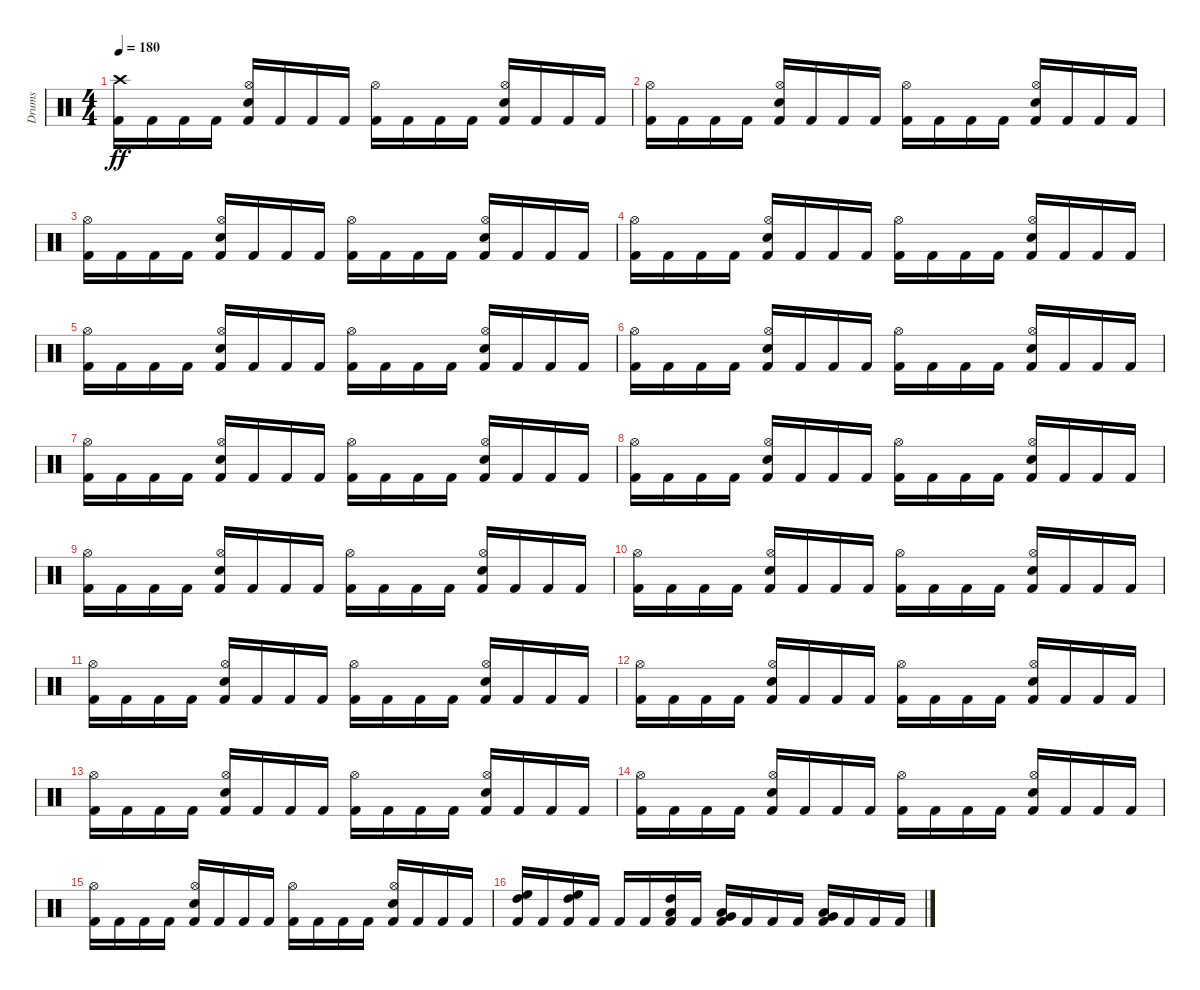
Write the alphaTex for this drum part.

\track ("Drums" "Drums") {instrument percussion}
\staff {score}
\articulation defaults
\ts (4 4)
\tempo 180
\clef neutral
\ks c
("Crash high (hit)" "Kick (hit) 2").16{dy ff} "Kick (hit) 2".16 "Kick (hit) 2".16 "Kick (hit) 2".16 ("Hi-Hat (open)" "Snare (hit) 2" "Kick (hit) 2").16 "Kick (hit) 2".16 "Kick (hit) 2".16 "Kick (hit) 2".16 ("Hi-Hat (open)" "Kick (hit) 2").16 "Kick (hit) 2".16 "Kick (hit) 2".16 "Kick (hit) 2".16 ("Hi-Hat (open)" "Snare (hit) 2" "Kick (hit) 2").16 "Kick (hit) 2".16 "Kick (hit) 2".16 "Kick (hit) 2".16 |
("Hi-Hat (open)" "Kick (hit) 2").16 "Kick (hit) 2".16 "Kick (hit) 2".16 "Kick (hit) 2".16 ("Hi-Hat (open)" "Snare (hit) 2" "Kick (hit) 2").16 "Kick (hit) 2".16 "Kick (hit) 2".16 "Kick (hit) 2".16 ("Hi-Hat (open)" "Kick (hit) 2").16 "Kick (hit) 2".16 "Kick (hit) 2".16 "Kick (hit) 2".16 ("Hi-Hat (open)" "Snare (hit) 2" "Kick (hit) 2").16 "Kick (hit) 2".16 "Kick (hit) 2".16 "Kick (hit) 2".16 |
("Hi-Hat (open)" "Kick (hit) 2").16 "Kick (hit) 2".16 "Kick (hit) 2".16 "Kick (hit) 2".16 ("Hi-Hat (open)" "Snare (hit) 2" "Kick (hit) 2").16 "Kick (hit) 2".16 "Kick (hit) 2".16 "Kick (hit) 2".16 ("Hi-Hat (open)" "Kick (hit) 2").16 "Kick (hit) 2".16 "Kick (hit) 2".16 "Kick (hit) 2".16 ("Hi-Hat (open)" "Snare (hit) 2" "Kick (hit) 2").16 "Kick (hit) 2".16 "Kick (hit) 2".16 "Kick (hit) 2".16 |
("Hi-Hat (open)" "Kick (hit) 2").16 "Kick (hit) 2".16 "Kick (hit) 2".16 "Kick (hit) 2".16 ("Hi-Hat (open)" "Snare (hit) 2" "Kick (hit) 2").16 "Kick (hit) 2".16 "Kick (hit) 2".16 "Kick (hit) 2".16 ("Hi-Hat (open)" "Kick (hit) 2").16 "Kick (hit) 2".16 "Kick (hit) 2".16 "Kick (hit) 2".16 ("Hi-Hat (open)" "Snare (hit) 2" "Kick (hit) 2").16 "Kick (hit) 2".16 "Kick (hit) 2".16 "Kick (hit) 2".16 |
("Hi-Hat (open)" "Kick (hit) 2").16 "Kick (hit) 2".16 "Kick (hit) 2".16 "Kick (hit) 2".16 ("Hi-Hat (open)" "Snare (hit) 2" "Kick (hit) 2").16 "Kick (hit) 2".16 "Kick (hit) 2".16 "Kick (hit) 2".16 ("Hi-Hat (open)" "Kick (hit) 2").16 "Kick (hit) 2".16 "Kick (hit) 2".16 "Kick (hit) 2".16 ("Hi-Hat (open)" "Snare (hit) 2" "Kick (hit) 2").16 "Kick (hit) 2".16 "Kick (hit) 2".16 "Kick (hit) 2".16 |
("Hi-Hat (open)" "Kick (hit) 2").16 "Kick (hit) 2".16 "Kick (hit) 2".16 "Kick (hit) 2".16 ("Hi-Hat (open)" "Snare (hit) 2" "Kick (hit) 2").16 "Kick (hit) 2".16 "Kick (hit) 2".16 "Kick (hit) 2".16 ("Hi-Hat (open)" "Kick (hit) 2").16 "Kick (hit) 2".16 "Kick (hit) 2".16 "Kick (hit) 2".16 ("Hi-Hat (open)" "Snare (hit) 2" "Kick (hit) 2").16 "Kick (hit) 2".16 "Kick (hit) 2".16 "Kick (hit) 2".16 |
("Hi-Hat (open)" "Kick (hit) 2").16 "Kick (hit) 2".16 "Kick (hit) 2".16 "Kick (hit) 2".16 ("Hi-Hat (open)" "Snare (hit) 2" "Kick (hit) 2").16 "Kick (hit) 2".16 "Kick (hit) 2".16 "Kick (hit) 2".16 ("Hi-Hat (open)" "Kick (hit) 2").16 "Kick (hit) 2".16 "Kick (hit) 2".16 "Kick (hit) 2".16 ("Hi-Hat (open)" "Snare (hit) 2" "Kick (hit) 2").16 "Kick (hit) 2".16 "Kick (hit) 2".16 "Kick (hit) 2".16 |
("Hi-Hat (open)" "Kick (hit) 2").16 "Kick (hit) 2".16 "Kick (hit) 2".16 "Kick (hit) 2".16 ("Hi-Hat (open)" "Snare (hit) 2" "Kick (hit) 2").16 "Kick (hit) 2".16 "Kick (hit) 2".16 "Kick (hit) 2".16 ("Hi-Hat (open)" "Kick (hit) 2").16 "Kick (hit) 2".16 "Kick (hit) 2".16 "Kick (hit) 2".16 ("Hi-Hat (open)" "Snare (hit) 2" "Kick (hit) 2").16 "Kick (hit) 2".16 "Kick (hit) 2".16 "Kick (hit) 2".16 |
("Hi-Hat (open)" "Kick (hit) 2").16 "Kick (hit) 2".16 "Kick (hit) 2".16 "Kick (hit) 2".16 ("Hi-Hat (open)" "Snare (hit) 2" "Kick (hit) 2").16 "Kick (hit) 2".16 "Kick (hit) 2".16 "Kick (hit) 2".16 ("Hi-Hat (open)" "Kick (hit) 2").16 "Kick (hit) 2".16 "Kick (hit) 2".16 "Kick (hit) 2".16 ("Hi-Hat (open)" "Snare (hit) 2" "Kick (hit) 2").16 "Kick (hit) 2".16 "Kick (hit) 2".16 "Kick (hit) 2".16 |
("Hi-Hat (open)" "Kick (hit) 2").16 "Kick (hit) 2".16 "Kick (hit) 2".16 "Kick (hit) 2".16 ("Hi-Hat (open)" "Snare (hit) 2" "Kick (hit) 2").16 "Kick (hit) 2".16 "Kick (hit) 2".16 "Kick (hit) 2".16 ("Hi-Hat (open)" "Kick (hit) 2").16 "Kick (hit) 2".16 "Kick (hit) 2".16 "Kick (hit) 2".16 ("Hi-Hat (open)" "Snare (hit) 2" "Kick (hit) 2").16 "Kick (hit) 2".16 "Kick (hit) 2".16 "Kick (hit) 2".16 |
("Hi-Hat (open)" "Kick (hit) 2").16 "Kick (hit) 2".16 "Kick (hit) 2".16 "Kick (hit) 2".16 ("Hi-Hat (open)" "Snare (hit) 2" "Kick (hit) 2").16 "Kick (hit) 2".16 "Kick (hit) 2".16 "Kick (hit) 2".16 ("Hi-Hat (open)" "Kick (hit) 2").16 "Kick (hit) 2".16 "Kick (hit) 2".16 "Kick (hit) 2".16 ("Hi-Hat (open)" "Snare (hit) 2" "Kick (hit) 2").16 "Kick (hit) 2".16 "Kick (hit) 2".16 "Kick (hit) 2".16 |
("Hi-Hat (open)" "Kick (hit) 2").16 "Kick (hit) 2".16 "Kick (hit) 2".16 "Kick (hit) 2".16 ("Hi-Hat (open)" "Snare (hit) 2" "Kick (hit) 2").16 "Kick (hit) 2".16 "Kick (hit) 2".16 "Kick (hit) 2".16 ("Hi-Hat (open)" "Kick (hit) 2").16 "Kick (hit) 2".16 "Kick (hit) 2".16 "Kick (hit) 2".16 ("Hi-Hat (open)" "Snare (hit) 2" "Kick (hit) 2").16 "Kick (hit) 2".16 "Kick (hit) 2".16 "Kick (hit) 2".16 |
("Hi-Hat (open)" "Kick (hit) 2").16 "Kick (hit) 2".16 "Kick (hit) 2".16 "Kick (hit) 2".16 ("Hi-Hat (open)" "Snare (hit) 2" "Kick (hit) 2").16 "Kick (hit) 2".16 "Kick (hit) 2".16 "Kick (hit) 2".16 ("Hi-Hat (open)" "Kick (hit) 2").16 "Kick (hit) 2".16 "Kick (hit) 2".16 "Kick (hit) 2".16 ("Hi-Hat (open)" "Snare (hit) 2" "Kick (hit) 2").16 "Kick (hit) 2".16 "Kick (hit) 2".16 "Kick (hit) 2".16 |
("Hi-Hat (open)" "Kick (hit) 2").16 "Kick (hit) 2".16 "Kick (hit) 2".16 "Kick (hit) 2".16 ("Hi-Hat (open)" "Snare (hit) 2" "Kick (hit) 2").16 "Kick (hit) 2".16 "Kick (hit) 2".16 "Kick (hit) 2".16 ("Hi-Hat (open)" "Kick (hit) 2").16 "Kick (hit) 2".16 "Kick (hit) 2".16 "Kick (hit) 2".16 ("Hi-Hat (open)" "Snare (hit) 2" "Kick (hit) 2").16 "Kick (hit) 2".16 "Kick (hit) 2".16 "Kick (hit) 2".16 |
("Hi-Hat (open)" "Kick (hit) 2").16 "Kick (hit) 2".16 "Kick (hit) 2".16 "Kick (hit) 2".16 ("Hi-Hat (open)" "Snare (hit) 2" "Kick (hit) 2").16 "Kick (hit) 2".16 "Kick (hit) 2".16 "Kick (hit) 2".16 ("Hi-Hat (open)" "Kick (hit) 2").16 "Kick (hit) 2".16 "Kick (hit) 2".16 "Kick (hit) 2".16 ("Hi-Hat (open)" "Snare (hit) 2" "Kick (hit) 2").16 "Kick (hit) 2".16 "Kick (hit) 2".16 "Kick (hit) 2".16 |
("High Floor Tom (hit)" "High Tom (hit)" "Kick (hit) 2").16 "Kick (hit) 2".16 ("High Floor Tom (hit)" "High Tom (hit)" "Kick (hit) 2").16 "Kick (hit) 2".16 "Kick (hit) 2".16 "Kick (hit) 2".16 ("High Tom (hit)" "Low Tom (hit)" "Kick (hit) 2").16 "Kick (hit) 2".16 ("Low Tom (hit)" "Very Low Tom (hit)" "Kick (hit) 2").16 "Kick (hit) 2".16 "Kick (hit) 2".16 "Kick (hit) 2".16 ("Very Low Tom (hit)" "Low Floor Tom (hit)" "Kick (hit) 2").16 "Kick (hit) 2".16 "Kick (hit) 2".16 "Kick (hit) 2".16
